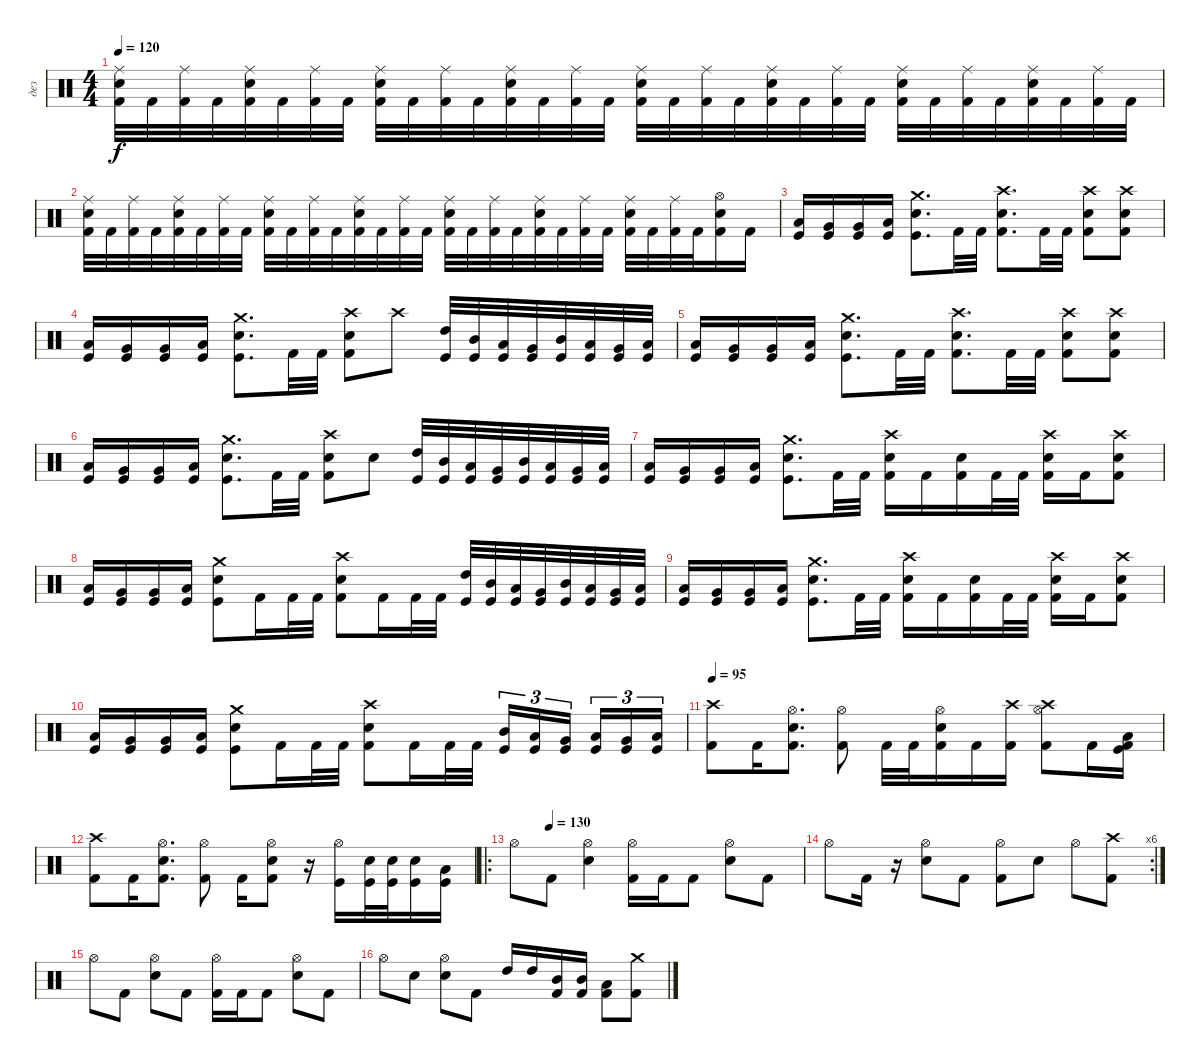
\track ("дез" "дез") {instrument percussion}
\staff {score}
\articulation defaults
\ts (4 4)
\tempo 120
\clef neutral
\ks c
("Ride (middle)" "Snare (hit) 2" "Kick (hit) 2").32{dy f} "Kick (hit) 2".32 ("Ride (middle)" "Kick (hit) 2").32 "Kick (hit) 2".32 ("Ride (middle)" "Snare (hit) 2" "Kick (hit) 2").32 "Kick (hit) 2".32 ("Ride (middle)" "Kick (hit) 2").32 "Kick (hit) 2".32 ("Ride (middle)" "Snare (hit) 2" "Kick (hit) 2").32 "Kick (hit) 2".32 ("Ride (middle)" "Kick (hit) 2").32 "Kick (hit) 2".32 ("Ride (middle)" "Snare (hit) 2" "Kick (hit) 2").32 "Kick (hit) 2".32 ("Ride (middle)" "Kick (hit) 2").32 "Kick (hit) 2".32 ("Ride (middle)" "Snare (hit) 2" "Kick (hit) 2").32 "Kick (hit) 2".32 ("Ride (middle)" "Kick (hit) 2").32 "Kick (hit) 2".32 ("Ride (middle)" "Snare (hit) 2" "Kick (hit) 2").32 "Kick (hit) 2".32 ("Ride (middle)" "Kick (hit) 2").32 "Kick (hit) 2".32 ("Ride (middle)" "Snare (hit) 2" "Kick (hit) 2").32 "Kick (hit) 2".32 ("Ride (middle)" "Kick (hit) 2").32 "Kick (hit) 2".32 ("Ride (middle)" "Snare (hit) 2" "Kick (hit) 2").32 "Kick (hit) 2".32 ("Ride (middle)" "Kick (hit) 2").32 "Kick (hit) 2".32 |
("Ride (middle)" "Snare (hit) 2" "Kick (hit) 2").32 "Kick (hit) 2".32 ("Ride (middle)" "Kick (hit) 2").32 "Kick (hit) 2".32 ("Ride (middle)" "Snare (hit) 2" "Kick (hit) 2").32 "Kick (hit) 2".32 ("Ride (middle)" "Kick (hit) 2").32 "Kick (hit) 2".32 ("Ride (middle)" "Snare (hit) 2" "Kick (hit) 2").32 "Kick (hit) 2".32 ("Ride (middle)" "Kick (hit) 2").32 "Kick (hit) 2".32 ("Ride (middle)" "Snare (hit) 2" "Kick (hit) 2").32 "Kick (hit) 2".32 ("Ride (middle)" "Kick (hit) 2").32 "Kick (hit) 2".32 ("Ride (middle)" "Snare (hit) 2" "Kick (hit) 2").32 "Kick (hit) 2".32 ("Ride (middle)" "Kick (hit) 2").32 "Kick (hit) 2".32 ("Ride (middle)" "Snare (hit) 2" "Kick (hit) 2").32 "Kick (hit) 2".32 ("Ride (middle)" "Kick (hit) 2").32 "Kick (hit) 2".32 ("Ride (middle)" "Snare (hit) 2" "Kick (hit) 2").32 "Kick (hit) 2".32 ("Ride (middle)" "Kick (hit) 2").32 "Kick (hit) 2".32 ("Hi-Hat (open)" "Snare (hit) 2" "Kick (hit) 2").16 "Kick (hit) 2".16 |
("Low Tom (hit)" "Kick (hit)").16 ("Very Low Tom (hit)" "Kick (hit)").16 ("Very Low Tom (hit)" "Kick (hit)").16 ("Low Floor Tom (hit)" "Kick (hit)").16 ("Crash medium (hit)" "Snare (hit) 2" "Kick (hit)").8{d} "Kick (hit) 2".32 "Kick (hit) 2".32 ("Crash high (hit)" "Snare (hit) 2" "Kick (hit) 2").8{d} "Kick (hit) 2".32 "Kick (hit) 2".32 ("Crash high (hit)" "Snare (hit) 2" "Kick (hit) 2").8 ("Crash high (hit)" "Snare (hit) 2" "Kick (hit) 2").8 |
("Low Tom (hit)" "Kick (hit)").16 ("Very Low Tom (hit)" "Kick (hit)").16 ("Very Low Tom (hit)" "Kick (hit)").16 ("Low Floor Tom (hit)" "Kick (hit)").16 ("Crash medium (hit)" "Snare (hit) 2" "Kick (hit)").8{d} "Kick (hit) 2".32 "Kick (hit) 2".32 ("Crash high (hit)" "Snare (hit) 2" "Kick (hit) 2").8 "Crash high (hit)".8 ("High Tom (hit)" "Kick (hit)").32 ("Mid Tom (hit)" "Kick (hit)").32 ("Low Tom (hit)" "Kick (hit)").32 ("Very Low Tom (hit)" "Kick (hit)").32 ("Mid Tom (hit)" "Kick (hit)").32 ("Low Tom (hit)" "Kick (hit)").32 ("Very Low Tom (hit)" "Kick (hit)").32 ("Low Floor Tom (hit)" "Kick (hit)").32 |
("Low Tom (hit)" "Kick (hit)").16 ("Very Low Tom (hit)" "Kick (hit)").16 ("Very Low Tom (hit)" "Kick (hit)").16 ("Low Floor Tom (hit)" "Kick (hit)").16 ("Crash medium (hit)" "Snare (hit) 2" "Kick (hit)").8{d} "Kick (hit) 2".32 "Kick (hit) 2".32 ("Crash high (hit)" "Snare (hit) 2" "Kick (hit) 2").8{d} "Kick (hit) 2".32 "Kick (hit) 2".32 ("Crash high (hit)" "Snare (hit) 2" "Kick (hit) 2").8 ("Crash high (hit)" "Snare (hit) 2" "Kick (hit) 2").8 |
("Low Tom (hit)" "Kick (hit)").16 ("Very Low Tom (hit)" "Kick (hit)").16 ("Very Low Tom (hit)" "Kick (hit)").16 ("Low Floor Tom (hit)" "Kick (hit)").16 ("Crash medium (hit)" "Snare (hit) 2" "Kick (hit)").8{d} "Kick (hit) 2".32 "Kick (hit) 2".32 ("Crash high (hit)" "Snare (hit) 2" "Kick (hit) 2").8 "Snare (hit) 2".8 ("High Tom (hit)" "Kick (hit)").32 ("Mid Tom (hit)" "Kick (hit)").32 ("Low Tom (hit)" "Kick (hit)").32 ("Very Low Tom (hit)" "Kick (hit)").32 ("Mid Tom (hit)" "Kick (hit)").32 ("Low Tom (hit)" "Kick (hit)").32 ("Very Low Tom (hit)" "Kick (hit)").32 ("Low Floor Tom (hit)" "Kick (hit)").32 |
("Low Tom (hit)" "Kick (hit)").16 ("Very Low Tom (hit)" "Kick (hit)").16 ("Very Low Tom (hit)" "Kick (hit)").16 ("Low Floor Tom (hit)" "Kick (hit)").16 ("Crash medium (hit)" "Snare (hit) 2" "Kick (hit)").8{d} "Kick (hit) 2".32 "Kick (hit) 2".32 ("Crash high (hit)" "Snare (hit) 2" "Kick (hit) 2").16 "Kick (hit) 2".16 ("Snare (hit) 2" "Kick (hit) 2").16 "Kick (hit) 2".32 "Kick (hit) 2".32 ("Crash high (hit)" "Snare (hit) 2" "Kick (hit) 2").16 "Kick (hit) 2".16 ("Crash high (hit)" "Snare (hit) 2" "Kick (hit) 2").8 |
("Low Tom (hit)" "Kick (hit)").16 ("Very Low Tom (hit)" "Kick (hit)").16 ("Very Low Tom (hit)" "Kick (hit)").16 ("Low Floor Tom (hit)" "Kick (hit)").16 ("Crash medium (hit)" "Snare (hit) 2" "Kick (hit)").8 "Kick (hit) 2".16 "Kick (hit) 2".32 "Kick (hit) 2".32 ("Crash high (hit)" "Snare (hit) 2" "Kick (hit) 2").8 "Kick (hit) 2".16 "Kick (hit) 2".32 "Kick (hit) 2".32 ("High Tom (hit)" "Kick (hit)").32 ("Mid Tom (hit)" "Kick (hit)").32 ("Low Tom (hit)" "Kick (hit)").32 ("Very Low Tom (hit)" "Kick (hit)").32 ("Mid Tom (hit)" "Kick (hit)").32 ("Low Tom (hit)" "Kick (hit)").32 ("Very Low Tom (hit)" "Kick (hit)").32 ("Low Floor Tom (hit)" "Kick (hit)").32 |
("Low Tom (hit)" "Kick (hit)").16 ("Very Low Tom (hit)" "Kick (hit)").16 ("Very Low Tom (hit)" "Kick (hit)").16 ("Low Floor Tom (hit)" "Kick (hit)").16 ("Crash medium (hit)" "Snare (hit) 2" "Kick (hit)").8{d} "Kick (hit) 2".32 "Kick (hit) 2".32 ("Crash high (hit)" "Snare (hit) 2" "Kick (hit) 2").16 "Kick (hit) 2".16 ("Snare (hit) 2" "Kick (hit) 2").16 "Kick (hit) 2".32 "Kick (hit) 2".32 ("Crash high (hit)" "Snare (hit) 2" "Kick (hit) 2").16 "Kick (hit) 2".16 ("Crash high (hit)" "Snare (hit) 2" "Kick (hit) 2").8 |
("Low Tom (hit)" "Kick (hit)").16 ("Very Low Tom (hit)" "Kick (hit)").16 ("Very Low Tom (hit)" "Kick (hit)").16 ("Low Floor Tom (hit)" "Kick (hit)").16 ("Crash medium (hit)" "Snare (hit) 2" "Kick (hit)").8 "Kick (hit) 2".16 "Kick (hit) 2".32 "Kick (hit) 2".32 ("Crash high (hit)" "Snare (hit) 2" "Kick (hit) 2").8 "Kick (hit) 2".16 "Kick (hit) 2".32 "Kick (hit) 2".32 ("Mid Tom (hit)" "Kick (hit)").16{tu (3 2)} ("Low Tom (hit)" "Kick (hit)").16{tu (3 2)} ("Very Low Tom (hit)" "Kick (hit)").16{tu (3 2) beam splitsecondary} ("Low Tom (hit)" "Kick (hit)").16{tu (3 2)} ("Very Low Tom (hit)" "Kick (hit)").16{tu (3 2)} ("Low Floor Tom (hit)" "Kick (hit)").16{tu (3 2)} |
\tempo 95
("Crash high (hit)" "Kick (hit) 2").8 "Kick (hit) 2".16 ("Hi-Hat (open)" "Snare (hit) 2" "Kick (hit) 2").8{d} ("Hi-Hat (open)" "Kick (hit) 2").8 "Kick (hit) 2".32 "Kick (hit) 2".32 ("Hi-Hat (open)" "Snare (hit) 2" "Kick (hit) 2").16 "Kick (hit) 2".16 ("Crash high (hit)" "Kick (hit) 2").16 ("Crash high (hit)" "Hi-Hat (open)" "Kick (hit) 2").8 "Kick (hit) 2".16 ("Low Tom (hit)" "Kick (hit)" "Kick (hit) 2").16 |
("Crash high (hit)" "Kick (hit) 2").8 "Kick (hit) 2".16 ("Hi-Hat (open)" "Snare (hit) 2" "Kick (hit) 2").8{d} ("Hi-Hat (open)" "Kick (hit) 2").8 "Kick (hit) 2".16 ("Hi-Hat (open)" "Snare (hit) 2" "Kick (hit) 2").8 r.16 ("Hi-Hat (open)" "Kick (hit)").16 ("Snare (hit) 2" "Kick (hit)").32 ("Snare (hit) 2" "Kick (hit)").32 ("Snare (hit) 2" "Kick (hit)").16 ("Low Tom (hit)" "Kick (hit)").16 |
\ro
\tempo (130 0.125)
"Hi-Hat (open)".8 "Kick (hit) 2".8 ("Electric Snare (hit)" "Hi-Hat (open)").4 ("Kick (hit) 2" "Hi-Hat (open)").16 "Kick (hit) 2".16 "Kick (hit) 2".8 ("Hi-Hat (open)" "Electric Snare (hit)").8 "Kick (hit) 2".8 |
\rc 6 "Hi-Hat (open)".8 "Kick (hit) 2".16
r.16 ("Electric Snare (hit)" "Hi-Hat (open)").8 "Kick (hit) 2".8 ("Hi-Hat (open)" "Kick (hit) 2").8 "Electric Snare (hit)".8 "Hi-Hat (open)".8 ("Crash high (hit)" "Kick (hit) 2").8 |
"Hi-Hat (open)".8 "Kick (hit) 2".8 ("Electric Snare (hit)" "Hi-Hat (open)").8 "Kick (hit) 2".8 ("Kick (hit) 2" "Hi-Hat (open)").16 "Kick (hit) 2".16 "Kick (hit) 2".8 ("Hi-Hat (open)" "Electric Snare (hit)").8 "Kick (hit) 2".8 |
"Hi-Hat (open)".8 "Electric Snare (hit)".8 ("Electric Snare (hit)" "Hi-Hat (open)").8 "Kick (hit) 2".8 "High Tom (hit)".16 "High Tom (hit)".16 ("Mid Tom (hit)" "Kick (hit) 2").16 ("Mid Tom (hit)" "Kick (hit) 2").16 ("Low Tom (hit)" "Kick (hit) 2").8 ("Crash medium (hit)" "Kick (hit) 2").8
